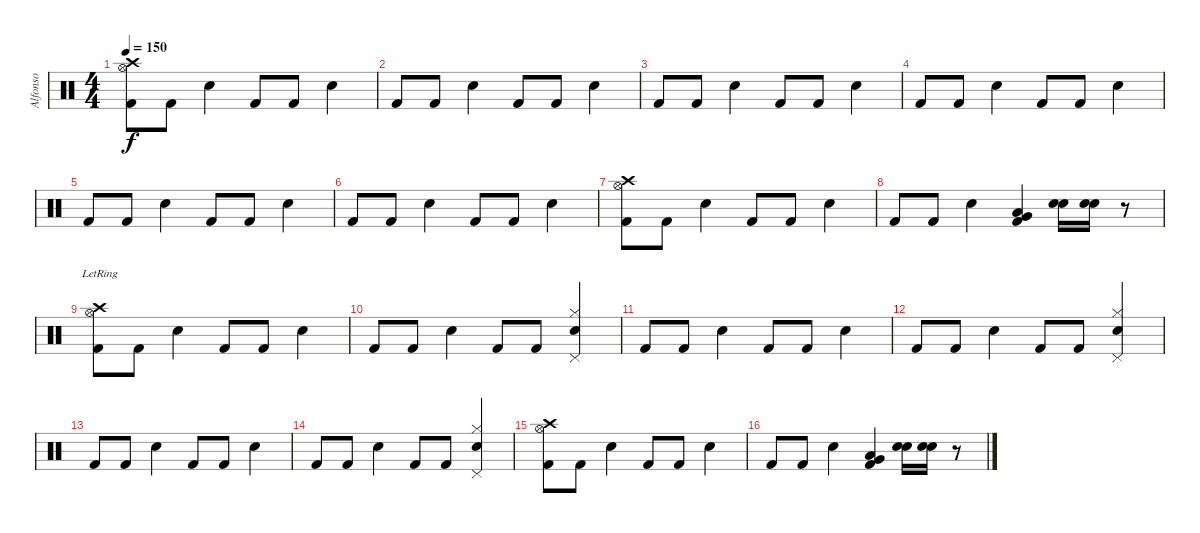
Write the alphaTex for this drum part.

\track ("Alfonso" "Alfonso") {instrument percussion}
\staff {score}
\articulation defaults
\ts (4 4)
\tempo 150
\clef neutral
\ks c
("Crash high (hit)" "Hi-Hat (open)" "Kick (hit) 2").8{dy f} "Kick (hit) 2".8 "Electric Snare (hit)".4 "Kick (hit) 2".8 "Kick (hit) 2".8 "Electric Snare (hit)".4 |
"Kick (hit) 2".8 "Kick (hit) 2".8 "Electric Snare (hit)".4 "Kick (hit) 2".8 "Kick (hit) 2".8 "Electric Snare (hit)".4 |
"Kick (hit) 2".8 "Kick (hit) 2".8 "Electric Snare (hit)".4 "Kick (hit) 2".8 "Kick (hit) 2".8 "Electric Snare (hit)".4 |
"Kick (hit) 2".8 "Kick (hit) 2".8 "Electric Snare (hit)".4 "Kick (hit) 2".8 "Kick (hit) 2".8 "Electric Snare (hit)".4 |
"Kick (hit) 2".8 "Kick (hit) 2".8 "Electric Snare (hit)".4 "Kick (hit) 2".8 "Kick (hit) 2".8 "Electric Snare (hit)".4 |
"Kick (hit) 2".8 "Kick (hit) 2".8 "Electric Snare (hit)".4 "Kick (hit) 2".8 "Kick (hit) 2".8 "Electric Snare (hit)".4 |
("Crash high (hit)" "Hi-Hat (open)" "Kick (hit) 2").8 "Kick (hit) 2".8 "Electric Snare (hit)".4 "Kick (hit) 2".8 "Kick (hit) 2".8 "Electric Snare (hit)".4 |
"Kick (hit) 2".8 "Kick (hit) 2".8 "Electric Snare (hit)".4 ("Kick (hit) 2" "Very Low Tom (hit)" "Low Floor Tom (hit)").4 ("Snare (hit) 2" "Electric Snare (hit)").16 ("Snare (hit) 2" "Electric Snare (hit)").16 r.8 |
("Hi-Hat (open)"{lr} "Crash high (hit)"{lr} "Kick (hit) 2"{lr}).8 "Kick (hit) 2".8 "Electric Snare (hit)".4 "Kick (hit) 2".8 "Kick (hit) 2".8 "Electric Snare (hit)".4 |
"Kick (hit) 2".8 "Kick (hit) 2".8 "Electric Snare (hit)".4 "Kick (hit) 2".8 "Kick (hit) 2".8 ("Hi-Hat (closed)" "Pedal Hi-Hat (hit)" "Electric Snare (hit)").4 |
"Kick (hit) 2".8 "Kick (hit) 2".8 "Electric Snare (hit)".4 "Kick (hit) 2".8 "Kick (hit) 2".8 "Electric Snare (hit)".4 |
"Kick (hit) 2".8 "Kick (hit) 2".8 "Electric Snare (hit)".4 "Kick (hit) 2".8 "Kick (hit) 2".8 ("Hi-Hat (closed)" "Pedal Hi-Hat (hit)" "Electric Snare (hit)").4 |
"Kick (hit) 2".8 "Kick (hit) 2".8 "Electric Snare (hit)".4 "Kick (hit) 2".8 "Kick (hit) 2".8 "Electric Snare (hit)".4 |
"Kick (hit) 2".8 "Kick (hit) 2".8 "Electric Snare (hit)".4 "Kick (hit) 2".8 "Kick (hit) 2".8 ("Pedal Hi-Hat (hit)" "Hi-Hat (closed)" "Electric Snare (hit)").4 |
("Crash high (hit)" "Hi-Hat (open)" "Kick (hit) 2").8 "Kick (hit) 2".8 "Electric Snare (hit)".4 "Kick (hit) 2".8 "Kick (hit) 2".8 "Electric Snare (hit)".4 |
"Kick (hit) 2".8 "Kick (hit) 2".8 "Electric Snare (hit)".4 ("Kick (hit) 2" "Very Low Tom (hit)" "Low Floor Tom (hit)").4 ("Snare (hit) 2" "Electric Snare (hit)").16 ("Snare (hit) 2" "Electric Snare (hit)").16 r.8
